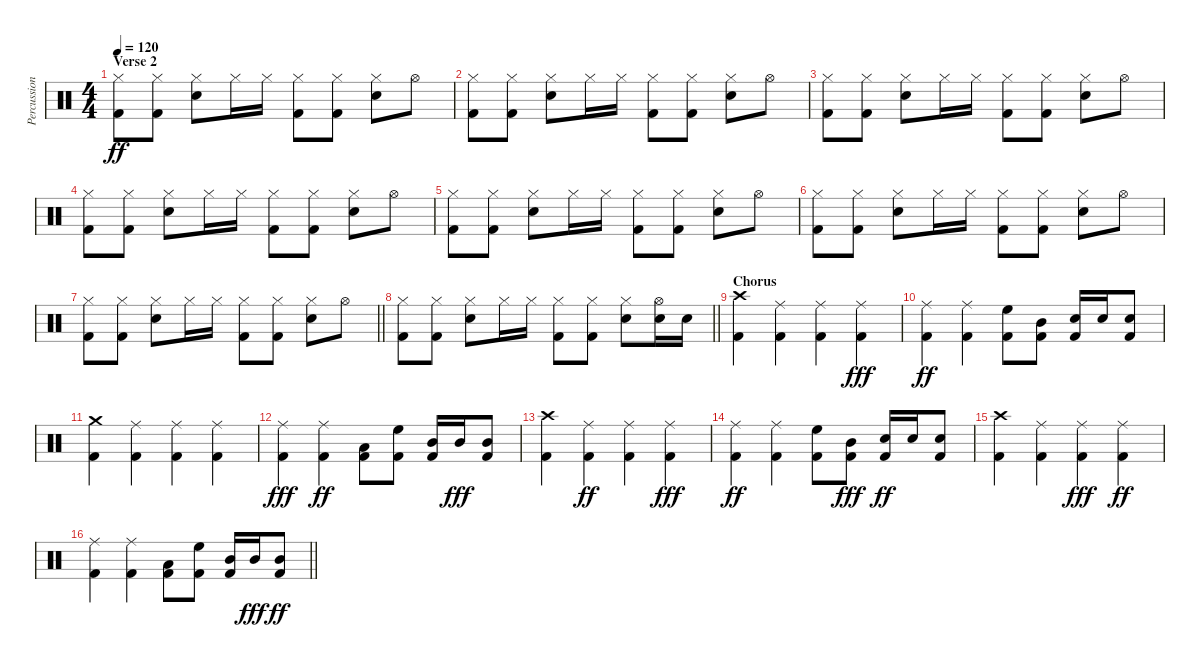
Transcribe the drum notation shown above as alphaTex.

\track ("Percussion" "Percussion") {instrument percussion}
\staff {score}
\articulation defaults
\ts (4 4)
\section ("" "Verse 2")
\tempo 120
\clef neutral
\ks c
("Kick (hit) 2" "Hi-Hat (closed)").8{dy ff} ("Kick (hit) 2" "Hi-Hat (closed)").8 ("Hi-Hat (closed)" "Snare (hit) 2").8 "Hi-Hat (closed)".16 "Hi-Hat (closed)".16 ("Kick (hit) 2" "Hi-Hat (closed)").8 ("Hi-Hat (closed)" "Kick (hit) 2").8 ("Hi-Hat (closed)" "Snare (hit) 2").8 "Hi-Hat (open)".8 |
("Kick (hit) 2" "Hi-Hat (closed)").8 ("Hi-Hat (closed)" "Kick (hit) 2").8 ("Hi-Hat (closed)" "Snare (hit) 2").8 "Hi-Hat (closed)".16 "Hi-Hat (closed)".16 ("Hi-Hat (closed)" "Kick (hit) 2").8 ("Hi-Hat (closed)" "Kick (hit) 2").8 ("Hi-Hat (closed)" "Snare (hit) 2").8 "Hi-Hat (open)".8 |
("Hi-Hat (closed)" "Kick (hit) 2").8 ("Kick (hit) 2" "Hi-Hat (closed)").8 ("Hi-Hat (closed)" "Snare (hit) 2").8 "Hi-Hat (closed)".16 "Hi-Hat (closed)".16 ("Hi-Hat (closed)" "Kick (hit) 2").8 ("Hi-Hat (closed)" "Kick (hit) 2").8 ("Snare (hit) 2" "Hi-Hat (closed)").8 "Hi-Hat (open)".8 |
("Kick (hit) 2" "Hi-Hat (closed)").8 ("Hi-Hat (closed)" "Kick (hit) 2").8 ("Snare (hit) 2" "Hi-Hat (closed)").8 "Hi-Hat (closed)".16 "Hi-Hat (closed)".16 ("Kick (hit) 2" "Hi-Hat (closed)").8 ("Hi-Hat (closed)" "Kick (hit) 2").8 ("Hi-Hat (closed)" "Snare (hit) 2").8 "Hi-Hat (open)".8 |
("Hi-Hat (closed)" "Kick (hit) 2").8 ("Hi-Hat (closed)" "Kick (hit) 2").8 ("Hi-Hat (closed)" "Snare (hit) 2").8 "Hi-Hat (closed)".16 "Hi-Hat (closed)".16 ("Hi-Hat (closed)" "Kick (hit) 2").8 ("Kick (hit) 2" "Hi-Hat (closed)").8 ("Hi-Hat (closed)" "Snare (hit) 2").8 "Hi-Hat (open)".8 |
("Kick (hit) 2" "Hi-Hat (closed)").8 ("Hi-Hat (closed)" "Kick (hit) 2").8 ("Hi-Hat (closed)" "Snare (hit) 2").8 "Hi-Hat (closed)".16 "Hi-Hat (closed)".16 ("Hi-Hat (closed)" "Kick (hit) 2").8 ("Kick (hit) 2" "Hi-Hat (closed)").8 ("Snare (hit) 2" "Hi-Hat (closed)").8 "Hi-Hat (open)".8 |
\barLineRight lightlight
("Hi-Hat (closed)" "Kick (hit) 2").8 ("Hi-Hat (closed)" "Kick (hit) 2").8 ("Hi-Hat (closed)" "Snare (hit) 2").8 "Hi-Hat (closed)".16 "Hi-Hat (closed)".16 ("Hi-Hat (closed)" "Kick (hit) 2").8 ("Hi-Hat (closed)" "Kick (hit) 2").8 ("Hi-Hat (closed)" "Snare (hit) 2").8 "Hi-Hat (open)".8 |
\barLineRight lightlight
("Kick (hit) 2" "Hi-Hat (closed)").8 ("Hi-Hat (closed)" "Kick (hit) 2").8 ("Hi-Hat (closed)" "Snare (hit) 2").8 "Hi-Hat (closed)".16 "Hi-Hat (closed)".16 ("Hi-Hat (closed)" "Kick (hit) 2").8 ("Kick (hit) 2" "Hi-Hat (closed)").8 ("Hi-Hat (closed)" "Snare (hit) 2").8 ("Snare (hit) 2" "Hi-Hat (open)").16 "Snare (hit) 2".16 |
\section ("" "Chorus")
("Crash high (hit)" "Kick (hit) 2").4 ("Ride (middle)" "Kick (hit) 2").4 ("Ride (middle)" "Kick (hit) 2").4 ("Kick (hit) 2" "Ride (middle)").4{dy fff} |
("Ride (middle)" "Kick (hit) 2").4{dy ff} ("Ride (middle)" "Kick (hit) 2").4 ("High Floor Tom (hit)" "Kick (hit) 2").8 ("Mid Tom (hit)" "Kick (hit) 2").8 ("Snare (hit) 2" "Kick (hit) 2").16 "Snare (hit) 2".16 ("Snare (hit) 2" "Kick (hit) 2").8 |
("Crash medium (hit)" "Kick (hit) 2").4 ("Ride (middle)" "Kick (hit) 2").4 ("Ride (middle)" "Kick (hit) 2").4 ("Ride (middle)" "Kick (hit) 2").4 |
("Kick (hit) 2" "Ride (middle)").4{dy fff} ("Ride (middle)" "Kick (hit) 2").4{dy ff} ("Low Tom (hit)" "Kick (hit) 2").8 ("High Floor Tom (hit)" "Kick (hit) 2").8 ("Mid Tom (hit)" "Kick (hit) 2").16 "Mid Tom (hit)".16{dy fff} ("Kick (hit) 2" "Mid Tom (hit)").8 |
("Kick (hit) 2" "Crash high (hit)").4 ("Ride (middle)" "Kick (hit) 2").4{dy ff} ("Ride (middle)" "Kick (hit) 2").4 ("Kick (hit) 2" "Ride (middle)").4{dy fff} |
("Ride (middle)" "Kick (hit) 2").4{dy ff} ("Ride (middle)" "Kick (hit) 2").4 ("High Floor Tom (hit)" "Kick (hit) 2").8 ("Kick (hit) 2" "Mid Tom (hit)").8{dy fff} ("Snare (hit) 2" "Kick (hit) 2").16{dy ff} "Snare (hit) 2".16 ("Kick (hit) 2" "Snare (hit) 2").8 |
("Crash high (hit)" "Kick (hit) 2").4 ("Ride (middle)" "Kick (hit) 2").4 ("Kick (hit) 2" "Ride (middle)").4{dy fff} ("Ride (middle)" "Kick (hit) 2").4{dy ff} |
\barLineRight lightlight
("Ride (middle)" "Kick (hit) 2").4 ("Ride (middle)" "Kick (hit) 2").4 ("Low Tom (hit)" "Kick (hit) 2").8 ("High Floor Tom (hit)" "Kick (hit) 2").8 ("Mid Tom (hit)" "Kick (hit) 2").16 "Mid Tom (hit)".16{dy fff} ("Mid Tom (hit)" "Kick (hit) 2").8{dy ff}
